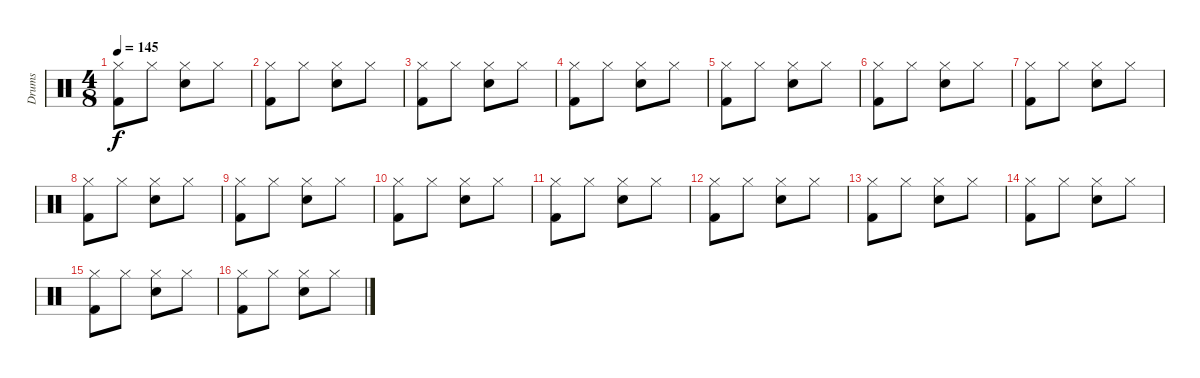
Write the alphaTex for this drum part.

\track ("Drums" "Drums") {instrument percussion}
\staff {score}
\articulation defaults
\ts (4 8)
\tempo 145
\clef neutral
\ks c
("Hi-Hat (closed)" "Kick (hit) 2").8{dy f} "Hi-Hat (closed)".8 ("Hi-Hat (closed)" "Snare (hit) 2").8 "Hi-Hat (closed)".8 |
("Hi-Hat (closed)" "Kick (hit) 2").8 "Hi-Hat (closed)".8 ("Hi-Hat (closed)" "Snare (hit) 2").8 "Hi-Hat (closed)".8 |
("Hi-Hat (closed)" "Kick (hit) 2").8 "Hi-Hat (closed)".8 ("Hi-Hat (closed)" "Snare (hit) 2").8 "Hi-Hat (closed)".8 |
("Hi-Hat (closed)" "Kick (hit) 2").8 "Hi-Hat (closed)".8 ("Hi-Hat (closed)" "Snare (hit) 2").8 "Hi-Hat (closed)".8 |
("Hi-Hat (closed)" "Kick (hit) 2").8 "Hi-Hat (closed)".8 ("Hi-Hat (closed)" "Snare (hit) 2").8 "Hi-Hat (closed)".8 |
("Hi-Hat (closed)" "Kick (hit) 2").8 "Hi-Hat (closed)".8 ("Hi-Hat (closed)" "Snare (hit) 2").8 "Hi-Hat (closed)".8 |
("Hi-Hat (closed)" "Kick (hit) 2").8 "Hi-Hat (closed)".8 ("Hi-Hat (closed)" "Snare (hit) 2").8 "Hi-Hat (closed)".8 |
("Hi-Hat (closed)" "Kick (hit) 2").8 "Hi-Hat (closed)".8 ("Hi-Hat (closed)" "Snare (hit) 2").8 "Hi-Hat (closed)".8 |
("Hi-Hat (closed)" "Kick (hit) 2").8 "Hi-Hat (closed)".8 ("Hi-Hat (closed)" "Snare (hit) 2").8 "Hi-Hat (closed)".8 |
("Hi-Hat (closed)" "Kick (hit) 2").8 "Hi-Hat (closed)".8 ("Hi-Hat (closed)" "Snare (hit) 2").8 "Hi-Hat (closed)".8 |
("Hi-Hat (closed)" "Kick (hit) 2").8 "Hi-Hat (closed)".8 ("Hi-Hat (closed)" "Snare (hit) 2").8 "Hi-Hat (closed)".8 |
("Hi-Hat (closed)" "Kick (hit) 2").8 "Hi-Hat (closed)".8 ("Hi-Hat (closed)" "Snare (hit) 2").8 "Hi-Hat (closed)".8 |
("Hi-Hat (closed)" "Kick (hit) 2").8 "Hi-Hat (closed)".8 ("Hi-Hat (closed)" "Snare (hit) 2").8 "Hi-Hat (closed)".8 |
("Hi-Hat (closed)" "Kick (hit) 2").8 "Hi-Hat (closed)".8 ("Hi-Hat (closed)" "Snare (hit) 2").8 "Hi-Hat (closed)".8 |
("Hi-Hat (closed)" "Kick (hit) 2").8 "Hi-Hat (closed)".8 ("Hi-Hat (closed)" "Snare (hit) 2").8 "Hi-Hat (closed)".8 |
("Hi-Hat (closed)" "Kick (hit) 2").8 "Hi-Hat (closed)".8 ("Hi-Hat (closed)" "Snare (hit) 2").8 "Hi-Hat (closed)".8
